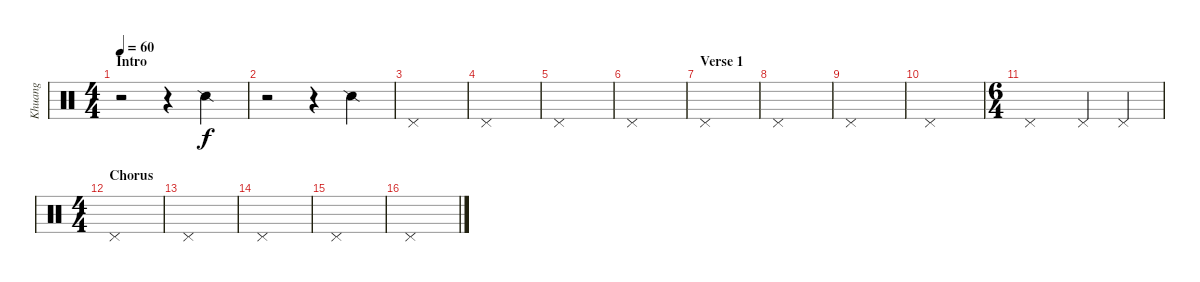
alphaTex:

\track ("Khuang" "Khuang") {instrument percussion}
\staff {score}
\articulation defaults
\ts (4 4)
\section ("" "Intro")
\tempo 60
\clef neutral
\ks c
r.2{dy f} r.4 "Snare (side stick) 2".4 |
r.2 r.4 "Snare (side stick) 2".4 |
"Pedal Hi-Hat (hit)".1 |
"Pedal Hi-Hat (hit)".1 |
"Pedal Hi-Hat (hit)".1 |
"Pedal Hi-Hat (hit)".1 |
\section ("" "Verse 1")
"Pedal Hi-Hat (hit)".1 |
"Pedal Hi-Hat (hit)".1 |
"Pedal Hi-Hat (hit)".1 |
"Pedal Hi-Hat (hit)".1 |
\ts (6 4)
"Pedal Hi-Hat (hit)".1 "Pedal Hi-Hat (hit)".4 "Pedal Hi-Hat (hit)".4 |
\ts (4 4)
\section ("" "Chorus")
"Pedal Hi-Hat (hit)".1 |
"Pedal Hi-Hat (hit)".1 |
"Pedal Hi-Hat (hit)".1 |
"Pedal Hi-Hat (hit)".1 |
"Pedal Hi-Hat (hit)".1
